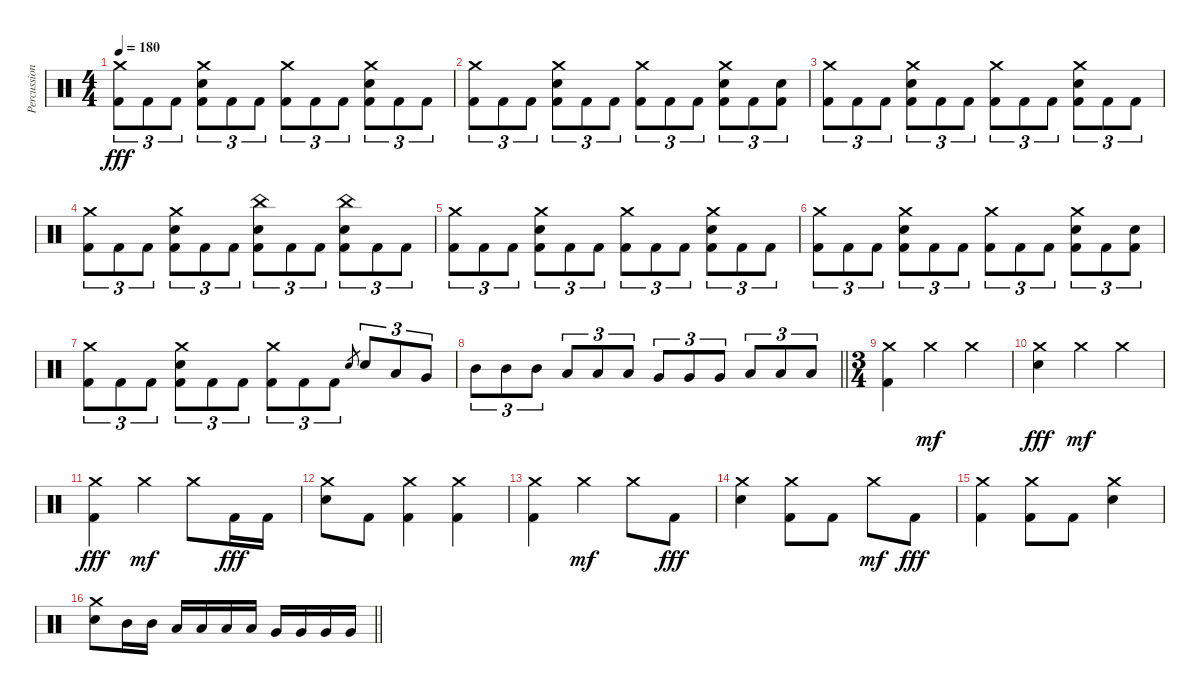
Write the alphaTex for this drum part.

\track ("Percussion" "Percussion") {instrument percussion}
\staff {score}
\articulation defaults
\ts (4 4)
\tempo 180
\clef neutral
\ks c
("Crash medium (hit)" "Kick (hit) 2").8{tu (3 2) dy fff} "Kick (hit) 2".8{tu (3 2)} "Kick (hit) 2".8{tu (3 2)} ("Crash medium (hit)" "Electric Snare (hit)" "Kick (hit) 2").8{tu (3 2)} "Kick (hit) 2".8{tu (3 2)} "Kick (hit) 2".8{tu (3 2)} ("Crash medium (hit)" "Kick (hit) 2").8{tu (3 2)} "Kick (hit) 2".8{tu (3 2)} "Kick (hit) 2".8{tu (3 2)} ("Crash medium (hit)" "Electric Snare (hit)" "Kick (hit) 2").8{tu (3 2)} "Kick (hit) 2".8{tu (3 2)} "Kick (hit) 2".8{tu (3 2)} |
("Crash medium (hit)" "Kick (hit) 2").8{tu (3 2)} "Kick (hit) 2".8{tu (3 2)} "Kick (hit) 2".8{tu (3 2)} ("Crash medium (hit)" "Electric Snare (hit)" "Kick (hit) 2").8{tu (3 2)} "Kick (hit) 2".8{tu (3 2)} "Kick (hit) 2".8{tu (3 2)} ("Crash medium (hit)" "Kick (hit) 2").8{tu (3 2)} "Kick (hit) 2".8{tu (3 2)} "Kick (hit) 2".8{tu (3 2)} ("Crash medium (hit)" "Electric Snare (hit)" "Kick (hit) 2").8{tu (3 2)} "Kick (hit) 2".8{tu (3 2)} ("Electric Snare (hit)" "Kick (hit) 2").8{tu (3 2)} |
("Crash medium (hit)" "Kick (hit) 2").8{tu (3 2)} "Kick (hit) 2".8{tu (3 2)} "Kick (hit) 2".8{tu (3 2)} ("Crash medium (hit)" "Electric Snare (hit)" "Kick (hit) 2").8{tu (3 2)} "Kick (hit) 2".8{tu (3 2)} "Kick (hit) 2".8{tu (3 2)} ("Crash medium (hit)" "Kick (hit) 2").8{tu (3 2)} "Kick (hit) 2".8{tu (3 2)} "Kick (hit) 2".8{tu (3 2)} ("Crash medium (hit)" "Electric Snare (hit)" "Kick (hit) 2").8{tu (3 2)} "Kick (hit) 2".8{tu (3 2)} "Kick (hit) 2".8{tu (3 2)} |
("Crash medium (hit)" "Kick (hit) 2").8{tu (3 2)} "Kick (hit) 2".8{tu (3 2)} "Kick (hit) 2".8{tu (3 2)} ("Crash medium (hit)" "Electric Snare (hit)" "Kick (hit) 2").8{tu (3 2)} "Kick (hit) 2".8{tu (3 2)} "Kick (hit) 2".8{tu (3 2)} ("China (hit)" "Electric Snare (hit)" "Kick (hit) 2").8{tu (3 2)} "Kick (hit) 2".8{tu (3 2)} "Kick (hit) 2".8{tu (3 2)} ("China (hit)" "Electric Snare (hit)" "Kick (hit) 2").8{tu (3 2)} "Kick (hit) 2".8{tu (3 2)} "Kick (hit) 2".8{tu (3 2)} |
("Crash medium (hit)" "Kick (hit) 2").8{tu (3 2)} "Kick (hit) 2".8{tu (3 2)} "Kick (hit) 2".8{tu (3 2)} ("Crash medium (hit)" "Electric Snare (hit)" "Kick (hit) 2").8{tu (3 2)} "Kick (hit) 2".8{tu (3 2)} "Kick (hit) 2".8{tu (3 2)} ("Crash medium (hit)" "Kick (hit) 2").8{tu (3 2)} "Kick (hit) 2".8{tu (3 2)} "Kick (hit) 2".8{tu (3 2)} ("Crash medium (hit)" "Electric Snare (hit)" "Kick (hit) 2").8{tu (3 2)} "Kick (hit) 2".8{tu (3 2)} "Kick (hit) 2".8{tu (3 2)} |
("Crash medium (hit)" "Kick (hit) 2").8{tu (3 2)} "Kick (hit) 2".8{tu (3 2)} "Kick (hit) 2".8{tu (3 2)} ("Crash medium (hit)" "Electric Snare (hit)" "Kick (hit) 2").8{tu (3 2)} "Kick (hit) 2".8{tu (3 2)} "Kick (hit) 2".8{tu (3 2)} ("Crash medium (hit)" "Kick (hit) 2").8{tu (3 2)} "Kick (hit) 2".8{tu (3 2)} "Kick (hit) 2".8{tu (3 2)} ("Crash medium (hit)" "Electric Snare (hit)" "Kick (hit) 2").8{tu (3 2)} "Kick (hit) 2".8{tu (3 2)} ("Electric Snare (hit)" "Kick (hit) 2").8{tu (3 2)} |
("Crash medium (hit)" "Kick (hit) 2").8{tu (3 2)} "Kick (hit) 2".8{tu (3 2)} "Kick (hit) 2".8{tu (3 2)} ("Crash medium (hit)" "Electric Snare (hit)" "Kick (hit) 2").8{tu (3 2)} "Kick (hit) 2".8{tu (3 2)} "Kick (hit) 2".8{tu (3 2)} ("Crash medium (hit)" "Kick (hit) 2").8{tu (3 2)} "Kick (hit) 2".8{tu (3 2)} "Kick (hit) 2".8{tu (3 2)} "Electric Snare (hit)".8{gr} "Electric Snare (hit)".8{tu (3 2)} "Low Tom (hit)".8{tu (3 2)} "Very Low Tom (hit)".8{tu (3 2)} |
\barLineRight lightlight "Mid Tom (hit)".8{tu (3 2)} "Mid Tom (hit)".8{tu (3 2)} "Mid Tom (hit)".8{tu (3 2)} "Low Tom (hit)".8{tu (3 2)} "Low Tom (hit)".8{tu (3 2)} "Low Tom (hit)".8{tu (3 2)} "Very Low Tom (hit)".8{tu (3 2)} "Very Low Tom (hit)".8{tu (3 2)} "Very Low Tom (hit)".8{tu (3 2)} "Low Floor Tom (hit)".8{tu (3 2)} "Low Floor Tom (hit)".8{tu (3 2)} "Low Floor Tom (hit)".8{tu (3 2)}
|
\ts (3 4)
\section ("" "")
("Crash medium (hit)" "Kick (hit) 2").4 "Crash medium (hit)".4{dy mf} "Crash medium (hit)".4 |
("Crash medium (hit)" "Electric Snare (hit)").4{dy fff} "Crash medium (hit)".4{dy mf} "Crash medium (hit)".4 |
("Crash medium (hit)" "Kick (hit) 2").4{dy fff} "Crash medium (hit)".4{dy mf} "Crash medium (hit)".8 "Kick (hit) 2".16{dy fff} "Kick (hit) 2".16 |
("Crash medium (hit)" "Electric Snare (hit)").8 "Kick (hit) 2".8 ("Crash medium (hit)" "Kick (hit) 2").4 ("Crash medium (hit)" "Kick (hit) 2").4 |
("Crash medium (hit)" "Kick (hit) 2").4 "Crash medium (hit)".4{dy mf} "Crash medium (hit)".8 "Kick (hit) 2".8{dy fff} |
("Crash medium (hit)" "Electric Snare (hit)").4 ("Crash medium (hit)" "Kick (hit) 2").8 "Kick (hit) 2".8 "Crash medium (hit)".8{dy mf} "Kick (hit) 2".8{dy fff} |
("Crash medium (hit)" "Kick (hit) 2").4 ("Crash medium (hit)" "Kick (hit) 2").8 "Kick (hit) 2".8 ("Crash medium (hit)" "Electric Snare (hit)").4 |
\barLineRight lightlight
("Crash medium (hit)" "Electric Snare (hit)").8 "Mid Tom (hit)".16 "Mid Tom (hit)".16 "Low Tom (hit)".16 "Low Tom (hit)".16 "Low Tom (hit)".16 "Low Tom (hit)".16 "Very Low Tom (hit)".16 "Very Low Tom (hit)".16 "Very Low Tom (hit)".16 "Very Low Tom (hit)".16
